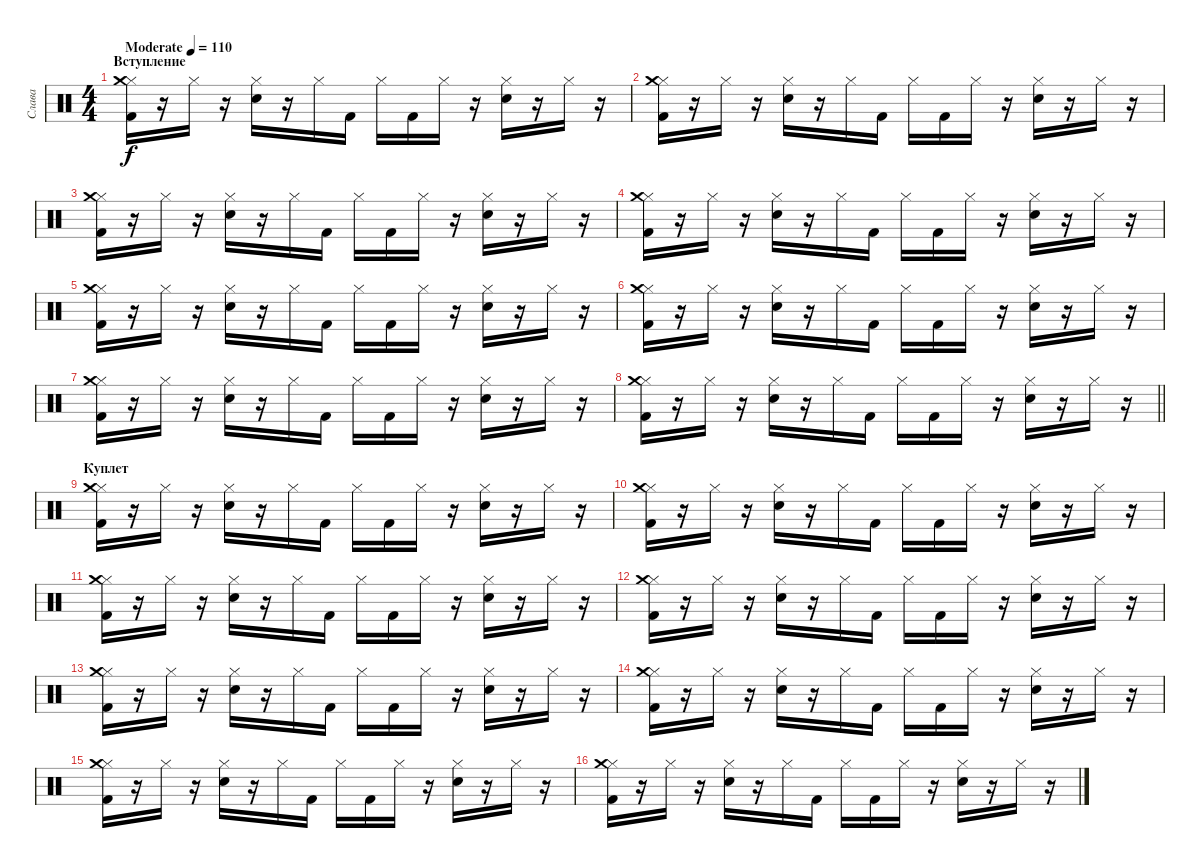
\track ("Слава" "Слава") {instrument percussion}
\staff {score}
\articulation defaults
\ts (4 4)
\section ("" "Вступление")
\tempo (110 "Moderate")
\clef neutral
\ks c
("Hi-Hat (closed)" "Crash medium (hit)" "Kick (hit) 2").16{dy f} r.16 "Hi-Hat (closed)".16 r.16 ("Hi-Hat (closed)" "Electric Snare (hit)").16 r.16 "Hi-Hat (closed)".16 "Kick (hit) 2".16 "Hi-Hat (closed)".16 "Kick (hit) 2".16 "Hi-Hat (closed)".16 r.16 ("Hi-Hat (closed)" "Electric Snare (hit)").16 r.16 "Hi-Hat (closed)".16 r.16 |
("Hi-Hat (closed)" "Crash medium (hit)" "Kick (hit) 2").16 r.16 "Hi-Hat (closed)".16 r.16 ("Hi-Hat (closed)" "Electric Snare (hit)").16 r.16 "Hi-Hat (closed)".16 "Kick (hit) 2".16 "Hi-Hat (closed)".16 "Kick (hit) 2".16 "Hi-Hat (closed)".16 r.16 ("Hi-Hat (closed)" "Electric Snare (hit)").16 r.16 "Hi-Hat (closed)".16 r.16 |
("Hi-Hat (closed)" "Crash medium (hit)" "Kick (hit) 2").16 r.16 "Hi-Hat (closed)".16 r.16 ("Hi-Hat (closed)" "Electric Snare (hit)").16 r.16 "Hi-Hat (closed)".16 "Kick (hit) 2".16 "Hi-Hat (closed)".16 "Kick (hit) 2".16 "Hi-Hat (closed)".16 r.16 ("Hi-Hat (closed)" "Electric Snare (hit)").16 r.16 "Hi-Hat (closed)".16 r.16 |
("Hi-Hat (closed)" "Crash medium (hit)" "Kick (hit) 2").16 r.16 "Hi-Hat (closed)".16 r.16 ("Hi-Hat (closed)" "Electric Snare (hit)").16 r.16 "Hi-Hat (closed)".16 "Kick (hit) 2".16 "Hi-Hat (closed)".16 "Kick (hit) 2".16 "Hi-Hat (closed)".16 r.16 ("Hi-Hat (closed)" "Electric Snare (hit)").16 r.16 "Hi-Hat (closed)".16 r.16 |
("Hi-Hat (closed)" "Crash medium (hit)" "Kick (hit) 2").16 r.16 "Hi-Hat (closed)".16 r.16 ("Hi-Hat (closed)" "Electric Snare (hit)").16 r.16 "Hi-Hat (closed)".16 "Kick (hit) 2".16 "Hi-Hat (closed)".16 "Kick (hit) 2".16 "Hi-Hat (closed)".16 r.16 ("Hi-Hat (closed)" "Electric Snare (hit)").16 r.16 "Hi-Hat (closed)".16 r.16 |
("Hi-Hat (closed)" "Crash medium (hit)" "Kick (hit) 2").16 r.16 "Hi-Hat (closed)".16 r.16 ("Hi-Hat (closed)" "Electric Snare (hit)").16 r.16 "Hi-Hat (closed)".16 "Kick (hit) 2".16 "Hi-Hat (closed)".16 "Kick (hit) 2".16 "Hi-Hat (closed)".16 r.16 ("Hi-Hat (closed)" "Electric Snare (hit)").16 r.16 "Hi-Hat (closed)".16 r.16 |
("Hi-Hat (closed)" "Crash medium (hit)" "Kick (hit) 2").16 r.16 "Hi-Hat (closed)".16 r.16 ("Hi-Hat (closed)" "Electric Snare (hit)").16 r.16 "Hi-Hat (closed)".16 "Kick (hit) 2".16 "Hi-Hat (closed)".16 "Kick (hit) 2".16 "Hi-Hat (closed)".16 r.16 ("Hi-Hat (closed)" "Electric Snare (hit)").16 r.16 "Hi-Hat (closed)".16 r.16 |
\barLineRight lightlight
("Hi-Hat (closed)" "Crash medium (hit)" "Kick (hit) 2").16 r.16 "Hi-Hat (closed)".16 r.16 ("Hi-Hat (closed)" "Electric Snare (hit)").16 r.16 "Hi-Hat (closed)".16 "Kick (hit) 2".16 "Hi-Hat (closed)".16 "Kick (hit) 2".16 "Hi-Hat (closed)".16 r.16 ("Hi-Hat (closed)" "Electric Snare (hit)").16 r.16 "Hi-Hat (closed)".16 r.16 |
\section ("" "Куплет")
("Hi-Hat (closed)" "Crash medium (hit)" "Kick (hit) 2").16 r.16 "Hi-Hat (closed)".16 r.16 ("Hi-Hat (closed)" "Electric Snare (hit)").16 r.16 "Hi-Hat (closed)".16 "Kick (hit) 2".16 "Hi-Hat (closed)".16 "Kick (hit) 2".16 "Hi-Hat (closed)".16 r.16 ("Hi-Hat (closed)" "Electric Snare (hit)").16 r.16 "Hi-Hat (closed)".16 r.16 |
("Hi-Hat (closed)" "Crash medium (hit)" "Kick (hit) 2").16 r.16 "Hi-Hat (closed)".16 r.16 ("Hi-Hat (closed)" "Electric Snare (hit)").16 r.16 "Hi-Hat (closed)".16 "Kick (hit) 2".16 "Hi-Hat (closed)".16 "Kick (hit) 2".16 "Hi-Hat (closed)".16 r.16 ("Hi-Hat (closed)" "Electric Snare (hit)").16 r.16 "Hi-Hat (closed)".16 r.16 |
("Hi-Hat (closed)" "Crash medium (hit)" "Kick (hit) 2").16 r.16 "Hi-Hat (closed)".16 r.16 ("Hi-Hat (closed)" "Electric Snare (hit)").16 r.16 "Hi-Hat (closed)".16 "Kick (hit) 2".16 "Hi-Hat (closed)".16 "Kick (hit) 2".16 "Hi-Hat (closed)".16 r.16 ("Hi-Hat (closed)" "Electric Snare (hit)").16 r.16 "Hi-Hat (closed)".16 r.16 |
("Hi-Hat (closed)" "Crash medium (hit)" "Kick (hit) 2").16 r.16 "Hi-Hat (closed)".16 r.16 ("Hi-Hat (closed)" "Electric Snare (hit)").16 r.16 "Hi-Hat (closed)".16 "Kick (hit) 2".16 "Hi-Hat (closed)".16 "Kick (hit) 2".16 "Hi-Hat (closed)".16 r.16 ("Hi-Hat (closed)" "Electric Snare (hit)").16 r.16 "Hi-Hat (closed)".16 r.16 |
("Hi-Hat (closed)" "Crash medium (hit)" "Kick (hit) 2").16 r.16 "Hi-Hat (closed)".16 r.16 ("Hi-Hat (closed)" "Electric Snare (hit)").16 r.16 "Hi-Hat (closed)".16 "Kick (hit) 2".16 "Hi-Hat (closed)".16 "Kick (hit) 2".16 "Hi-Hat (closed)".16 r.16 ("Hi-Hat (closed)" "Electric Snare (hit)").16 r.16 "Hi-Hat (closed)".16 r.16 |
("Hi-Hat (closed)" "Crash medium (hit)" "Kick (hit) 2").16 r.16 "Hi-Hat (closed)".16 r.16 ("Hi-Hat (closed)" "Electric Snare (hit)").16 r.16 "Hi-Hat (closed)".16 "Kick (hit) 2".16 "Hi-Hat (closed)".16 "Kick (hit) 2".16 "Hi-Hat (closed)".16 r.16 ("Hi-Hat (closed)" "Electric Snare (hit)").16 r.16 "Hi-Hat (closed)".16 r.16 |
("Hi-Hat (closed)" "Crash medium (hit)" "Kick (hit) 2").16 r.16 "Hi-Hat (closed)".16 r.16 ("Hi-Hat (closed)" "Electric Snare (hit)").16 r.16 "Hi-Hat (closed)".16 "Kick (hit) 2".16 "Hi-Hat (closed)".16 "Kick (hit) 2".16 "Hi-Hat (closed)".16 r.16 ("Hi-Hat (closed)" "Electric Snare (hit)").16 r.16 "Hi-Hat (closed)".16 r.16 |
("Hi-Hat (closed)" "Crash medium (hit)" "Kick (hit) 2").16 r.16 "Hi-Hat (closed)".16 r.16 ("Hi-Hat (closed)" "Electric Snare (hit)").16 r.16 "Hi-Hat (closed)".16 "Kick (hit) 2".16 "Hi-Hat (closed)".16 "Kick (hit) 2".16 "Hi-Hat (closed)".16 r.16 ("Hi-Hat (closed)" "Electric Snare (hit)").16 r.16 "Hi-Hat (closed)".16 r.16
